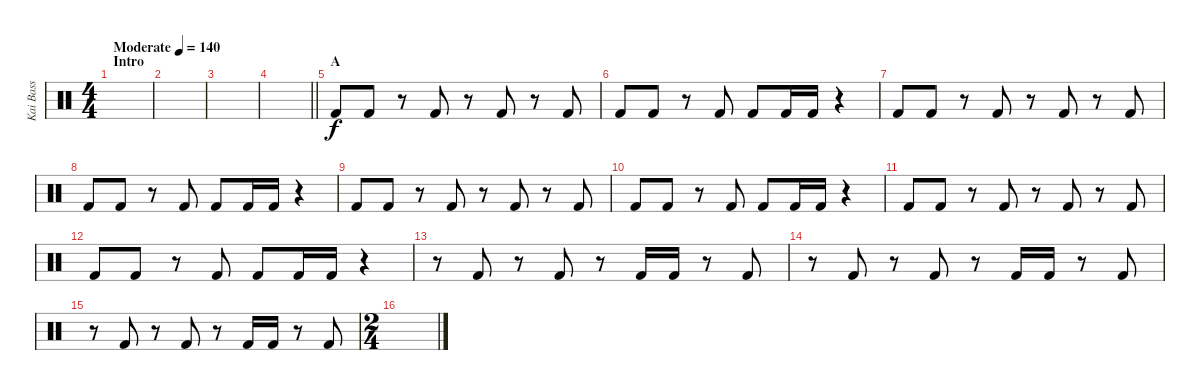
\track ("Kai Bass" "Kai Bass") {instrument percussion}
\staff {score}
\articulation defaults
\ts (4 4)
\section ("" "Intro")
\tempo (140 "Moderate")
\clef neutral
\ks c
|
|
|
\barLineRight lightlight
|
\section ("" "A")
"Kick (hit) 2".8 "Kick (hit) 2".8 r.8 "Kick (hit) 2".8 r.8 "Kick (hit) 2".8 r.8 "Kick (hit) 2".8 |
"Kick (hit) 2".8 "Kick (hit) 2".8 r.8 "Kick (hit) 2".8 "Kick (hit) 2".8 "Kick (hit) 2".16 "Kick (hit) 2".16 r.4 |
"Kick (hit) 2".8 "Kick (hit) 2".8 r.8 "Kick (hit) 2".8 r.8 "Kick (hit) 2".8 r.8 "Kick (hit) 2".8 |
"Kick (hit) 2".8 "Kick (hit) 2".8 r.8 "Kick (hit) 2".8 "Kick (hit) 2".8 "Kick (hit) 2".16 "Kick (hit) 2".16 r.4 |
"Kick (hit) 2".8 "Kick (hit) 2".8 r.8 "Kick (hit) 2".8 r.8 "Kick (hit) 2".8 r.8 "Kick (hit) 2".8 |
"Kick (hit) 2".8 "Kick (hit) 2".8 r.8 "Kick (hit) 2".8 "Kick (hit) 2".8 "Kick (hit) 2".16 "Kick (hit) 2".16 r.4 |
"Kick (hit) 2".8 "Kick (hit) 2".8 r.8 "Kick (hit) 2".8 r.8 "Kick (hit) 2".8 r.8 "Kick (hit) 2".8 |
"Kick (hit) 2".8 "Kick (hit) 2".8 r.8 "Kick (hit) 2".8 "Kick (hit) 2".8 "Kick (hit) 2".16 "Kick (hit) 2".16 r.4 |
r.8 "Kick (hit) 2".8 r.8 "Kick (hit) 2".8 r.8 "Kick (hit) 2".16 "Kick (hit) 2".16 r.8 "Kick (hit) 2".8 |
r.8 "Kick (hit) 2".8 r.8 "Kick (hit) 2".8 r.8 "Kick (hit) 2".16 "Kick (hit) 2".16 r.8 "Kick (hit) 2".8 |
r.8 "Kick (hit) 2".8 r.8 "Kick (hit) 2".8 r.8 "Kick (hit) 2".16 "Kick (hit) 2".16 r.8 "Kick (hit) 2".8 |
\ts (2 4)
